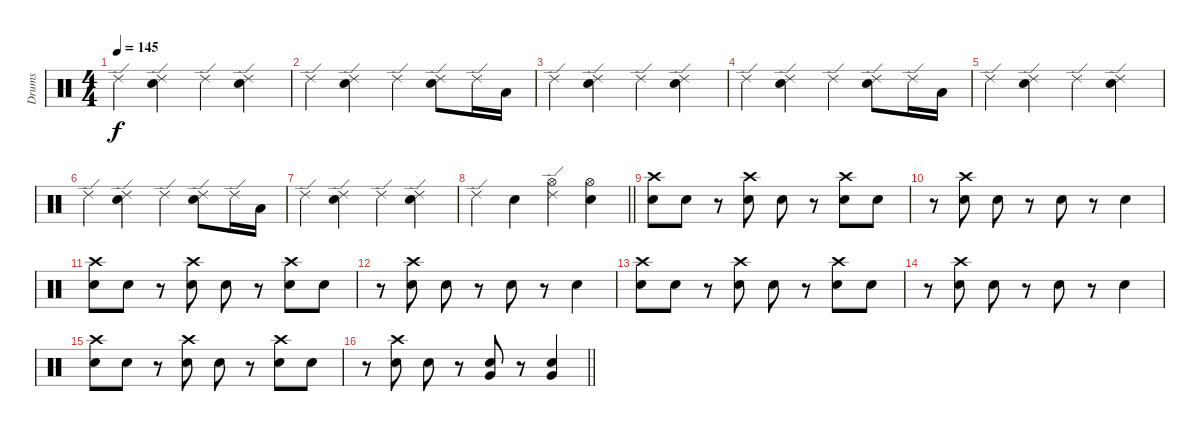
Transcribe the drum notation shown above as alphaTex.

\track ("Drums" "Drums") {instrument percussion}
\staff {score}
\articulation defaults
\ts (4 4)
\tempo 145
\clef neutral
\ks c "Ride (edge) 2".4{dy f}
("Ride (edge) 2" "Electric Snare (hit)").4 "Ride (edge) 2".4 ("Ride (edge) 2" "Electric Snare (hit)").4 |
"Ride (edge) 2".4 ("Ride (edge) 2" "Electric Snare (hit)").4 "Ride (edge) 2".4 ("Ride (edge) 2" "Electric Snare (hit)").8 "Ride (edge) 2".16 "Low Tom (hit)".16 |
"Ride (edge) 2".4 ("Ride (edge) 2" "Electric Snare (hit)").4 "Ride (edge) 2".4 ("Ride (edge) 2" "Electric Snare (hit)").4 |
"Ride (edge) 2".4 ("Ride (edge) 2" "Electric Snare (hit)").4 "Ride (edge) 2".4 ("Ride (edge) 2" "Electric Snare (hit)").8 "Ride (edge) 2".16 "Low Tom (hit)".16 |
"Ride (edge) 2".4 ("Ride (edge) 2" "Electric Snare (hit)").4 "Ride (edge) 2".4 ("Ride (edge) 2" "Electric Snare (hit)").4 |
"Ride (edge) 2".4 ("Ride (edge) 2" "Electric Snare (hit)").4 "Ride (edge) 2".4 ("Ride (edge) 2" "Electric Snare (hit)").8 "Ride (edge) 2".16 "Low Tom (hit)".16 |
"Ride (edge) 2".4 ("Ride (edge) 2" "Electric Snare (hit)").4 "Ride (edge) 2".4 ("Ride (edge) 2" "Electric Snare (hit)").4 |
\barLineRight lightlight "Ride (edge) 2".4 "Electric Snare (hit)".4
("Ride (edge) 2" "Hi-Hat (open)").4 ("Hi-Hat (open)" "Electric Snare (hit)").4 |
("Crash high (hit)" "Electric Snare (hit)").8 "Electric Snare (hit)".8 r.8 ("Crash high (hit)" "Electric Snare (hit)").8 "Electric Snare (hit)".8 r.8 ("Crash high (hit)" "Electric Snare (hit)").8 "Electric Snare (hit)".8 |
r.8 ("Crash high (hit)" "Electric Snare (hit)").8 "Electric Snare (hit)".8 r.8 "Electric Snare (hit)".8 r.8 "Electric Snare (hit)".4 |
("Crash high (hit)" "Electric Snare (hit)").8 "Electric Snare (hit)".8 r.8 ("Crash high (hit)" "Electric Snare (hit)").8 "Electric Snare (hit)".8 r.8 ("Crash high (hit)" "Electric Snare (hit)").8 "Electric Snare (hit)".8 |
r.8 ("Crash high (hit)" "Electric Snare (hit)").8 "Electric Snare (hit)".8 r.8 "Electric Snare (hit)".8 r.8 "Electric Snare (hit)".4 |
("Crash high (hit)" "Electric Snare (hit)").8 "Electric Snare (hit)".8 r.8 ("Crash high (hit)" "Electric Snare (hit)").8 "Electric Snare (hit)".8 r.8 ("Crash high (hit)" "Electric Snare (hit)").8 "Electric Snare (hit)".8 |
r.8 ("Crash high (hit)" "Electric Snare (hit)").8 "Electric Snare (hit)".8 r.8 "Electric Snare (hit)".8 r.8 "Electric Snare (hit)".4 |
("Crash high (hit)" "Electric Snare (hit)").8 "Electric Snare (hit)".8 r.8 ("Crash high (hit)" "Electric Snare (hit)").8 "Electric Snare (hit)".8 r.8 ("Crash high (hit)" "Electric Snare (hit)").8 "Electric Snare (hit)".8 |
\barLineRight lightlight
r.8 ("Crash high (hit)" "Electric Snare (hit)").8 "Electric Snare (hit)".8 r.8 ("Electric Snare (hit)" "Very Low Tom (hit)").8 r.8 ("Electric Snare (hit)" "Very Low Tom (hit)").4
